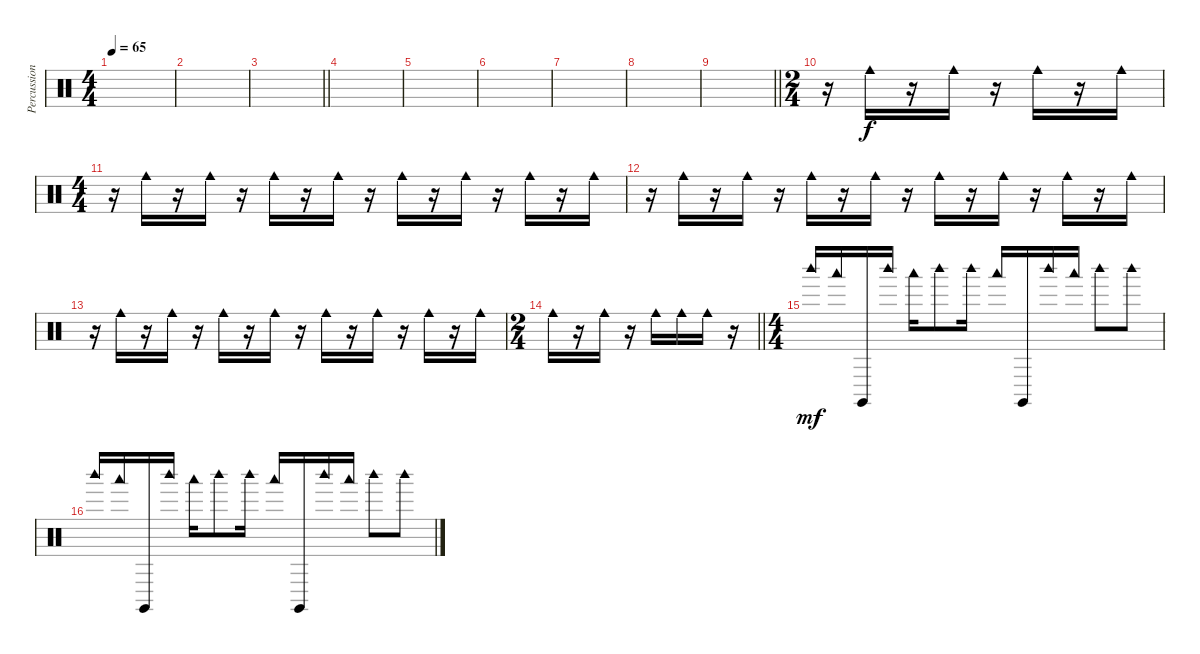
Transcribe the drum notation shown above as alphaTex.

\track ("Percussion 2" "Percussion") {instrument percussion}
\staff {score}
\articulation defaults
\ts (4 4)
\tempo 65
\clef neutral
\ks c
|
|
\barLineRight lightlight
|
|
|
|
|
|
\barLineRight lightlight
|
\ts (2 4)
r.16 "Cowbell medium (hit)".16 r.16 "Cowbell medium (hit)".16 r.16 "Cowbell medium (hit)".16 r.16 "Cowbell medium (hit)".16 |
\ts (4 4)
r.16 "Cowbell medium (hit)".16 r.16 "Cowbell medium (hit)".16 r.16 "Cowbell medium (hit)".16 r.16 "Cowbell medium (hit)".16 r.16 "Cowbell medium (hit)".16 r.16 "Cowbell medium (hit)".16 r.16 "Cowbell medium (hit)".16 r.16 "Cowbell medium (hit)".16 |
r.16 "Cowbell medium (hit)".16 r.16 "Cowbell medium (hit)".16 r.16 "Cowbell medium (hit)".16 r.16 "Cowbell medium (hit)".16 r.16 "Cowbell medium (hit)".16 r.16 "Cowbell medium (hit)".16 r.16 "Cowbell medium (hit)".16 r.16 "Cowbell medium (hit)".16 |
r.16 "Cowbell medium (hit)".16 r.16 "Cowbell medium (hit)".16 r.16 "Cowbell medium (hit)".16 r.16 "Cowbell medium (hit)".16 r.16 "Cowbell medium (hit)".16 r.16 "Cowbell medium (hit)".16 r.16 "Cowbell medium (hit)".16 r.16 "Cowbell medium (hit)".16 |
\ts (2 4)
\barLineRight lightlight "Cowbell medium (hit)".16
r.16 "Cowbell medium (hit)".16 r.16 "Cowbell medium (hit)".16 "Cowbell medium (hit)".16 "Cowbell medium (hit)".16 r.16 |
\ts (4 4)
"Woodblock high (hit)".16{dy mf} "Woodblock low (hit)".16 "Claves (hit)".16 "Woodblock high (hit)".16 "Woodblock low (hit)".16 "Woodblock high (hit)".8 "Woodblock high (hit)".16 "Woodblock low (hit)".16 "Claves (hit)".16 "Woodblock high (hit)".16 "Woodblock low (hit)".16 "Woodblock high (hit)".8 "Woodblock high (hit)".8 |
"Woodblock high (hit)".16 "Woodblock low (hit)".16 "Claves (hit)".16 "Woodblock high (hit)".16 "Woodblock low (hit)".16 "Woodblock high (hit)".8 "Woodblock high (hit)".16 "Woodblock low (hit)".16 "Claves (hit)".16 "Woodblock high (hit)".16 "Woodblock low (hit)".16 "Woodblock high (hit)".8 "Woodblock high (hit)".8
